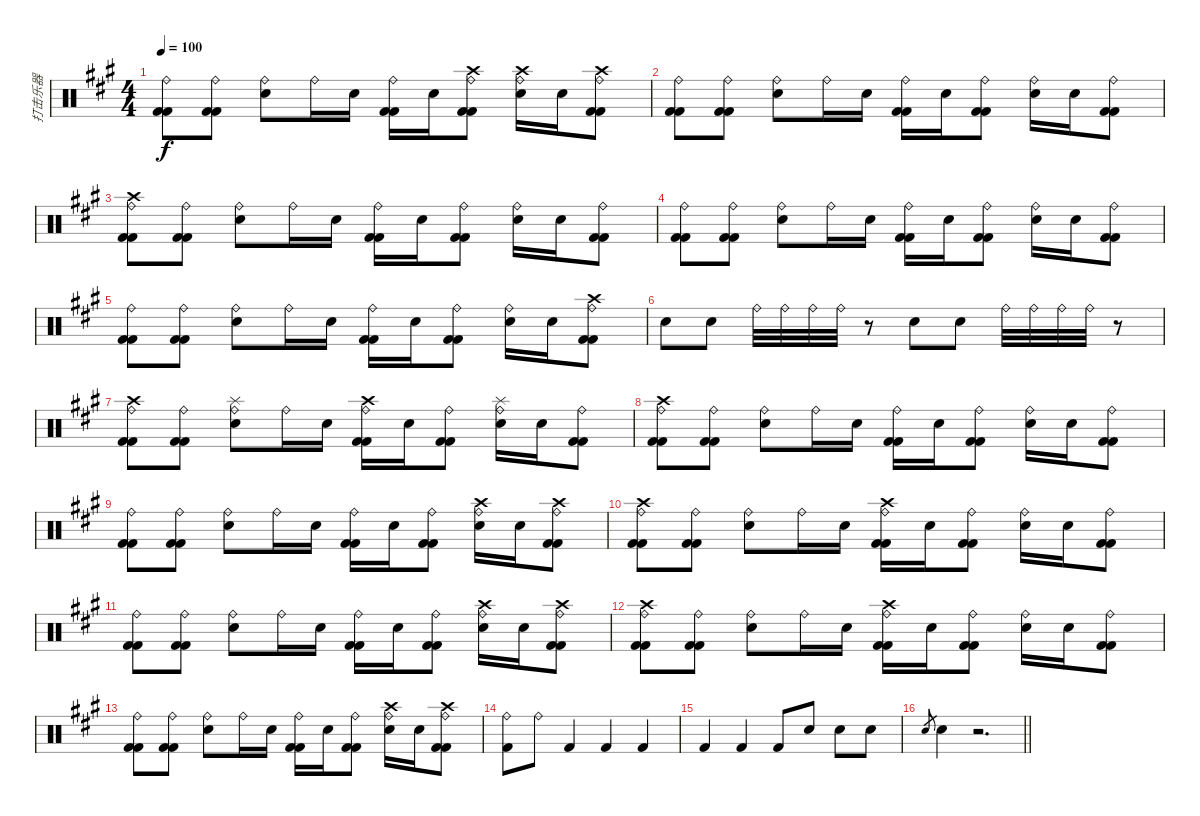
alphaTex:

\track ("打击乐器" "打击乐器") {instrument percussion}
\staff {score}
\articulation defaults
\ts (4 4)
\tempo 100
\clef neutral
\ks a
("Ride (bell)" "Kick (hit) 2" "Kick (hit) 2").8{dy f} ("Ride (bell)" "Kick (hit) 2" "Kick (hit) 2").8 ("Ride (bell)" "Electric Snare (hit)").8 "Ride (bell)".16 "Electric Snare (hit)".16 ("Ride (bell)" "Kick (hit) 2" "Kick (hit) 2").16 "Electric Snare (hit)".16 ("Ride (bell)" "Crash high (hit)" "Kick (hit) 2" "Kick (hit) 2").8 ("Ride (bell)" "Crash high (hit)" "Electric Snare (hit)").16 "Electric Snare (hit)".16 ("Ride (bell)" "Crash high (hit)" "Kick (hit) 2" "Kick (hit) 2").8 |
("Ride (bell)" "Kick (hit) 2" "Kick (hit) 2").8 ("Ride (bell)" "Kick (hit) 2" "Kick (hit) 2").8 ("Ride (bell)" "Electric Snare (hit)").8 "Ride (bell)".16 "Electric Snare (hit)".16 ("Ride (bell)" "Kick (hit) 2" "Kick (hit) 2").16 "Electric Snare (hit)".16 ("Ride (bell)" "Kick (hit) 2" "Kick (hit) 2").8 ("Ride (bell)" "Electric Snare (hit)").16 "Electric Snare (hit)".16 ("Ride (bell)" "Kick (hit) 2" "Kick (hit) 2").8 |
("Ride (bell)" "Crash high (hit)" "Kick (hit) 2" "Kick (hit) 2").8 ("Ride (bell)" "Kick (hit) 2" "Kick (hit) 2").8 ("Ride (bell)" "Electric Snare (hit)").8 "Ride (bell)".16 "Electric Snare (hit)".16 ("Ride (bell)" "Kick (hit) 2" "Kick (hit) 2").16 "Electric Snare (hit)".16 ("Ride (bell)" "Kick (hit) 2" "Kick (hit) 2").8 ("Ride (bell)" "Electric Snare (hit)").16 "Electric Snare (hit)".16 ("Ride (bell)" "Kick (hit) 2" "Kick (hit) 2").8 |
("Ride (bell)" "Kick (hit) 2" "Kick (hit) 2").8 ("Ride (bell)" "Kick (hit) 2" "Kick (hit) 2").8 ("Ride (bell)" "Electric Snare (hit)").8 "Ride (bell)".16 "Electric Snare (hit)".16 ("Ride (bell)" "Kick (hit) 2" "Kick (hit) 2").16 "Electric Snare (hit)".16 ("Ride (bell)" "Kick (hit) 2" "Kick (hit) 2").8 ("Ride (bell)" "Electric Snare (hit)").16 "Electric Snare (hit)".16 ("Ride (bell)" "Kick (hit) 2" "Kick (hit) 2").8 |
("Ride (bell)" "Kick (hit) 2" "Kick (hit) 2").8 ("Ride (bell)" "Kick (hit) 2" "Kick (hit) 2").8 ("Ride (bell)" "Electric Snare (hit)").8 "Ride (bell)".16 "Electric Snare (hit)".16 ("Ride (bell)" "Kick (hit) 2" "Kick (hit) 2").16 "Electric Snare (hit)".16 ("Ride (bell)" "Kick (hit) 2" "Kick (hit) 2").8 ("Ride (bell)" "Electric Snare (hit)").16 "Electric Snare (hit)".16 ("Ride (bell)" "Crash high (hit)" "Kick (hit) 2" "Kick (hit) 2").8 |
"Electric Snare (hit)".8 "Electric Snare (hit)".8 "Ride (bell)".32 "Ride (bell)".32 "Ride (bell)".32 "Ride (bell)".32 r.8 "Electric Snare (hit)".8 "Electric Snare (hit)".8 "Ride (bell)".32 "Ride (bell)".32 "Ride (bell)".32 "Ride (bell)".32 r.8 |
("Ride (bell)" "Crash high (hit)" "Kick (hit) 2" "Kick (hit) 2").8 ("Ride (bell)" "Kick (hit) 2" "Kick (hit) 2").8 ("Ride (bell)" "Splash (hit)" "Electric Snare (hit)").8 "Ride (bell)".16 "Electric Snare (hit)".16 ("Ride (bell)" "Crash high (hit)" "Kick (hit) 2" "Kick (hit) 2").16 "Electric Snare (hit)".16 ("Ride (bell)" "Kick (hit) 2" "Kick (hit) 2").8 ("Ride (bell)" "Splash (hit)" "Electric Snare (hit)").16 "Electric Snare (hit)".16 ("Ride (bell)" "Kick (hit) 2" "Kick (hit) 2").8 |
("Ride (bell)" "Crash high (hit)" "Kick (hit) 2" "Kick (hit) 2").8 ("Ride (bell)" "Kick (hit) 2" "Kick (hit) 2").8 ("Ride (bell)" "Electric Snare (hit)").8 "Ride (bell)".16 "Electric Snare (hit)".16 ("Ride (bell)" "Kick (hit) 2" "Kick (hit) 2").16 "Electric Snare (hit)".16 ("Ride (bell)" "Kick (hit) 2" "Kick (hit) 2").8 ("Ride (bell)" "Electric Snare (hit)").16 "Electric Snare (hit)".16 ("Ride (bell)" "Kick (hit) 2" "Kick (hit) 2").8 |
("Ride (bell)" "Kick (hit) 2" "Kick (hit) 2").8 ("Ride (bell)" "Kick (hit) 2" "Kick (hit) 2").8 ("Ride (bell)" "Electric Snare (hit)").8 "Ride (bell)".16 "Electric Snare (hit)".16 ("Ride (bell)" "Kick (hit) 2" "Kick (hit) 2").16 "Electric Snare (hit)".16 ("Ride (bell)" "Kick (hit) 2" "Kick (hit) 2").8 ("Ride (bell)" "Crash high (hit)" "Electric Snare (hit)").16 "Electric Snare (hit)".16 ("Ride (bell)" "Crash high (hit)" "Kick (hit) 2" "Kick (hit) 2").8 |
("Ride (bell)" "Crash high (hit)" "Kick (hit) 2" "Kick (hit) 2").8 ("Ride (bell)" "Kick (hit) 2" "Kick (hit) 2").8 ("Ride (bell)" "Electric Snare (hit)").8 "Ride (bell)".16 "Electric Snare (hit)".16 ("Ride (bell)" "Crash high (hit)" "Kick (hit) 2" "Kick (hit) 2").16 "Electric Snare (hit)".16 ("Ride (bell)" "Kick (hit) 2" "Kick (hit) 2").8 ("Ride (bell)" "Electric Snare (hit)").16 "Electric Snare (hit)".16 ("Ride (bell)" "Kick (hit) 2" "Kick (hit) 2").8 |
("Ride (bell)" "Kick (hit) 2" "Kick (hit) 2").8 ("Ride (bell)" "Kick (hit) 2" "Kick (hit) 2").8 ("Ride (bell)" "Electric Snare (hit)").8 "Ride (bell)".16 "Electric Snare (hit)".16 ("Ride (bell)" "Kick (hit) 2" "Kick (hit) 2").16 "Electric Snare (hit)".16 ("Ride (bell)" "Kick (hit) 2" "Kick (hit) 2").8 ("Ride (bell)" "Crash high (hit)" "Electric Snare (hit)").16 "Electric Snare (hit)".16 ("Ride (bell)" "Crash high (hit)" "Kick (hit) 2" "Kick (hit) 2").8 |
("Ride (bell)" "Crash high (hit)" "Kick (hit) 2" "Kick (hit) 2").8 ("Ride (bell)" "Kick (hit) 2" "Kick (hit) 2").8 ("Ride (bell)" "Electric Snare (hit)").8 "Ride (bell)".16 "Electric Snare (hit)".16 ("Ride (bell)" "Crash high (hit)" "Kick (hit) 2" "Kick (hit) 2").16 "Electric Snare (hit)".16 ("Ride (bell)" "Kick (hit) 2" "Kick (hit) 2").8 ("Ride (bell)" "Electric Snare (hit)").16 "Electric Snare (hit)".16 ("Ride (bell)" "Kick (hit) 2" "Kick (hit) 2").8 |
("Ride (bell)" "Kick (hit) 2" "Kick (hit) 2").8 ("Ride (bell)" "Kick (hit) 2" "Kick (hit) 2").8 ("Ride (bell)" "Electric Snare (hit)").8 "Ride (bell)".16 "Electric Snare (hit)".16 ("Ride (bell)" "Kick (hit) 2" "Kick (hit) 2").16 "Electric Snare (hit)".16 ("Ride (bell)" "Kick (hit) 2" "Kick (hit) 2").8 ("Ride (bell)" "Crash high (hit)" "Electric Snare (hit)").16 "Electric Snare (hit)".16 ("Ride (bell)" "Crash high (hit)" "Kick (hit) 2" "Kick (hit) 2").8 |
("Ride (bell)" "Kick (hit) 2").8 "Ride (bell)".8 "Kick (hit) 2".4 "Kick (hit) 2".4 "Kick (hit) 2".4 |
"Kick (hit) 2".4 "Kick (hit) 2".4 "Kick (hit) 2".8 "Electric Snare (hit)".8 "Electric Snare (hit)".8 "Electric Snare (hit)".8 |
\barLineRight lightlight "Electric Snare (hit)".8{gr} "Electric Snare (hit)".4
r.2{d}
